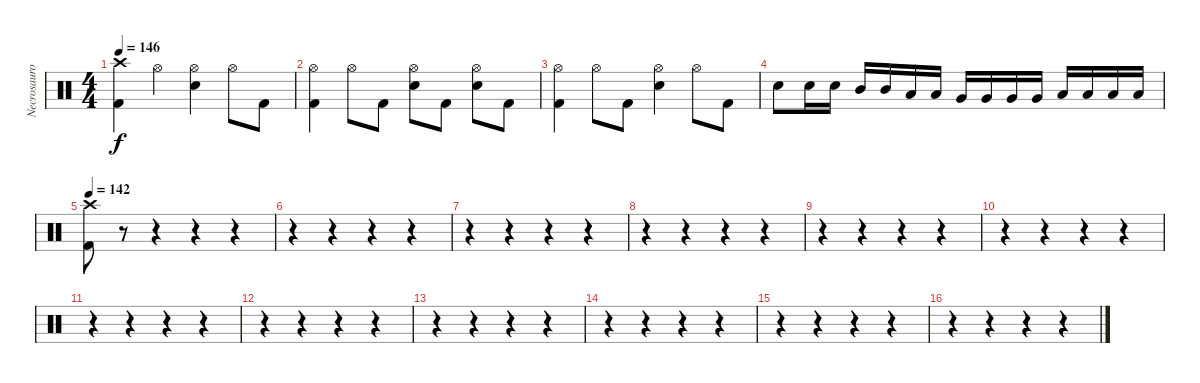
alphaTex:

\track ("Necrosauron" "Necrosauro") {instrument percussion}
\staff {score}
\articulation defaults
\ts (4 4)
\tempo 146
\clef neutral
\ks c
("Crash high (hit)" "Kick (hit) 2").4{dy f volume 5} "Hi-Hat (open)".4 ("Hi-Hat (open)" "Snare (hit) 2").4 "Hi-Hat (open)".8 "Kick (hit) 2".8 |
("Hi-Hat (open)" "Kick (hit) 2").4 "Hi-Hat (open)".8 "Kick (hit) 2".8 ("Hi-Hat (open)" "Snare (hit) 2").8 "Kick (hit) 2".8 ("Hi-Hat (open)" "Snare (hit) 2").8 "Kick (hit) 2".8 |
("Hi-Hat (open)" "Kick (hit) 2").4 "Hi-Hat (open)".8 "Kick (hit) 2".8 ("Hi-Hat (open)" "Snare (hit) 2").4 "Hi-Hat (open)".8 "Kick (hit) 2".8 |
"Snare (hit) 2".8 "Snare (hit) 2".16 "Snare (hit) 2".16 "Mid Tom (hit)".16 "Mid Tom (hit)".16 "Low Tom (hit)".16 "Low Tom (hit)".16 "Very Low Tom (hit)".16 "Very Low Tom (hit)".16 "Very Low Tom (hit)".16 "Very Low Tom (hit)".16 "Low Floor Tom (hit)".16 "Low Floor Tom (hit)".16 "Low Floor Tom (hit)".16 "Low Floor Tom (hit)".16 |
\tempo 142
("Crash high (hit)" "Kick (hit) 2").8 r.8 r.4 r.4 r.4 |
r.4 r.4 r.4 r.4 |
r.4 r.4 r.4 r.4 |
r.4 r.4 r.4 r.4 |
r.4{volume 13} r.4 r.4 r.4 |
r.4 r.4 r.4 r.4 |
r.4 r.4 r.4 r.4 |
r.4 r.4 r.4 r.4 |
r.4 r.4 r.4 r.4 |
r.4 r.4 r.4 r.4 |
r.4 r.4 r.4 r.4 |
r.4 r.4 r.4 r.4
